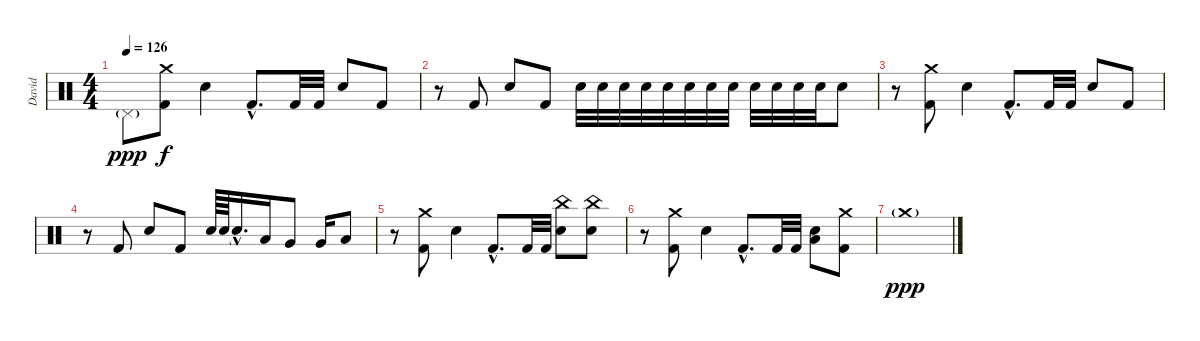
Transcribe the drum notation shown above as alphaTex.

\track ("David" "David") {instrument percussion}
\staff {score}
\articulation defaults
\ts (4 4)
\tempo 126
\clef neutral
\ks c "Pedal Hi-Hat (hit)"{g}.8{dy ppp}
("Crash medium (hit)" "Kick (hit) 2").8{dy f} "Snare (hit) 2".4 "Kick (hit) 2"{hac}.8{d} "Kick (hit) 2".32 "Kick (hit) 2".32 "Snare (hit) 2".8 "Kick (hit) 2".8 |
r.8 "Kick (hit) 2".8 "Snare (hit) 2".8 "Kick (hit) 2".8 "Snare (hit) 2".32 "Snare (hit) 2".32 "Snare (hit) 2".32 "Snare (hit) 2".32 "Snare (hit) 2".32 "Snare (hit) 2".32 "Snare (hit) 2".32 "Snare (hit) 2".32 "Snare (hit) 2".32 "Snare (hit) 2".32 "Snare (hit) 2".32 "Snare (hit) 2".32 "Snare (hit) 2".8 |
r.8 ("Crash medium (hit)" "Kick (hit) 2").8 "Snare (hit) 2".4 "Kick (hit) 2"{hac}.8{d} "Kick (hit) 2".32 "Kick (hit) 2".32 "Snare (hit) 2".8 "Kick (hit) 2".8 |
r.8 "Kick (hit) 2".8 "Snare (hit) 2".8 "Kick (hit) 2".8 "Snare (hit) 2".64 "Snare (hit) 2".64 "Snare (hit)"{hac t}.16{d} "Low Tom (hit)".16 "Very Low Tom (hit)".8 "Very Low Tom (hit)".16 "Low Floor Tom (hit)".8 |
r.8 ("Crash medium (hit)" "Kick (hit) 2").8 "Snare (hit) 2".4 "Kick (hit) 2"{hac}.8{d} "Kick (hit) 2".32 "Kick (hit) 2".32 ("China (hit)" "Snare (hit) 2").8 ("China (hit)" "Snare (hit) 2").8 |
r.8 ("Crash medium (hit)" "Kick (hit) 2").8 "Snare (hit) 2".4 "Kick (hit) 2"{hac}.8{d} "Kick (hit) 2".32 "Kick (hit) 2".32 ("Snare (hit) 2" "Low Floor Tom (hit)").8 ("Crash medium (hit)" "Kick (hit) 2").8 |
"Crash medium (hit)"{g}.1{dy ppp}
